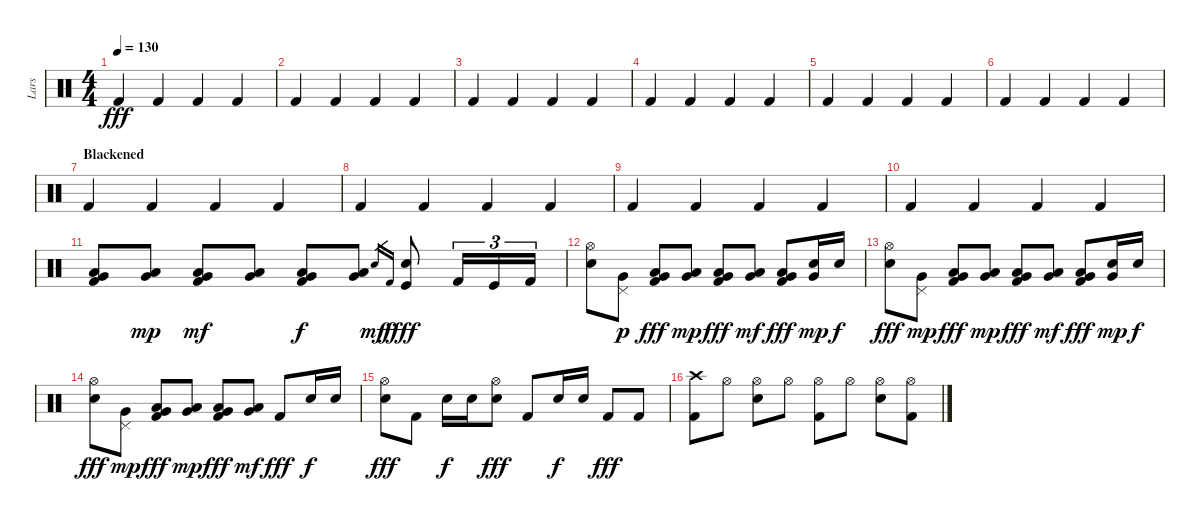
\track ("Lars" "Lars") {instrument percussion}
\staff {score}
\articulation defaults
\ts (4 4)
\tempo 130
\clef neutral
\ks c "Kick (hit) 2".4{dy fff} "Kick (hit) 2".4 "Kick (hit) 2".4 "Kick (hit) 2".4
|
"Kick (hit) 2".4 "Kick (hit) 2".4 "Kick (hit) 2".4 "Kick (hit) 2".4 |
"Kick (hit) 2".4 "Kick (hit) 2".4 "Kick (hit) 2".4 "Kick (hit) 2".4 |
"Kick (hit) 2".4 "Kick (hit) 2".4 "Kick (hit) 2".4 "Kick (hit) 2".4 |
"Kick (hit) 2".4 "Kick (hit) 2".4 "Kick (hit) 2".4 "Kick (hit) 2".4 |
"Kick (hit) 2".4 "Kick (hit) 2".4 "Kick (hit) 2".4 "Kick (hit) 2".4 |
\section ("" "Blackened")
"Kick (hit) 2".4 "Kick (hit) 2".4 "Kick (hit) 2".4 "Kick (hit) 2".4 |
"Kick (hit) 2".4 "Kick (hit) 2".4 "Kick (hit) 2".4 "Kick (hit) 2".4 |
"Kick (hit) 2".4 "Kick (hit) 2".4 "Kick (hit) 2".4 "Kick (hit) 2".4 |
"Kick (hit) 2".4 "Kick (hit) 2".4 "Kick (hit) 2".4 "Kick (hit) 2".4 |
("Very Low Tom (hit)" "Low Floor Tom (hit)" "Kick (hit) 2").8 ("Very Low Tom (hit)" "Low Floor Tom (hit)").8{dy mp} ("Very Low Tom (hit)" "Low Floor Tom (hit)" "Kick (hit) 2").8{dy mf} ("Very Low Tom (hit)" "Low Floor Tom (hit)").8 ("Very Low Tom (hit)" "Low Floor Tom (hit)" "Kick (hit) 2").8{dy f} ("Very Low Tom (hit)" "Low Floor Tom (hit)").8 "Snare (hit) 2".16{gr dy mf} "Kick (hit) 2".16{gr dy f} ("Snare (hit) 2" "Kick (hit)").8{dy fff} "Kick (hit) 2".16{tu (3 2)} "Kick (hit)".16{tu (3 2)} "Kick (hit) 2".16{tu (3 2)} |
("Hi-Hat (open)" "Snare (hit) 2").8 ("Pedal Hi-Hat (hit)" "Very Low Tom (hit)").8{dy p} ("Very Low Tom (hit)" "Low Floor Tom (hit)" "Kick (hit) 2").8{dy fff} ("Very Low Tom (hit)" "Low Floor Tom (hit)").8{dy mp} ("Very Low Tom (hit)" "Low Floor Tom (hit)" "Kick (hit) 2").8{dy fff} ("Very Low Tom (hit)" "Low Floor Tom (hit)").8{dy mf} ("Very Low Tom (hit)" "Low Floor Tom (hit)" "Kick (hit) 2").8{dy fff} ("Very Low Tom (hit)" "Snare (hit) 2").16{dy mp} "Snare (hit) 2".16{dy f} |
("Hi-Hat (open)" "Snare (hit) 2").8{dy fff} ("Pedal Hi-Hat (hit)" "Very Low Tom (hit)").8{dy mp} ("Very Low Tom (hit)" "Low Floor Tom (hit)" "Kick (hit) 2").8{dy fff} ("Very Low Tom (hit)" "Low Floor Tom (hit)").8{dy mp} ("Very Low Tom (hit)" "Low Floor Tom (hit)" "Kick (hit) 2").8{dy fff} ("Very Low Tom (hit)" "Low Floor Tom (hit)").8{dy mf} ("Very Low Tom (hit)" "Low Floor Tom (hit)" "Kick (hit) 2").8{dy fff} ("Very Low Tom (hit)" "Snare (hit) 2").16{dy mp} "Snare (hit) 2".16{dy f} |
("Hi-Hat (open)" "Snare (hit) 2").8{dy fff} ("Pedal Hi-Hat (hit)" "Very Low Tom (hit)").8{dy mp} ("Very Low Tom (hit)" "Low Floor Tom (hit)" "Kick (hit) 2").8{dy fff} ("Very Low Tom (hit)" "Low Floor Tom (hit)").8{dy mp} ("Very Low Tom (hit)" "Low Floor Tom (hit)" "Kick (hit) 2").8{dy fff} ("Very Low Tom (hit)" "Low Floor Tom (hit)").8{dy mf} "Kick (hit) 2".8{dy fff} "Snare (hit) 2".16{dy f} "Snare (hit) 2".16 |
("Hi-Hat (open)" "Snare (hit) 2").8{dy fff} "Kick (hit) 2".8 "Snare (hit) 2".16{dy f} "Snare (hit) 2".16 ("Hi-Hat (open)" "Snare (hit) 2").8{dy fff} "Kick (hit) 2".8 "Snare (hit) 2".16{dy f} "Snare (hit) 2".16 "Kick (hit) 2".8{dy fff} "Kick (hit) 2".8 |
("Crash high (hit)" "Kick (hit) 2").8 "Hi-Hat (open)".8 ("Hi-Hat (open)" "Snare (hit) 2").8 "Hi-Hat (open)".8 ("Hi-Hat (open)" "Kick (hit) 2").8 "Hi-Hat (open)".8 ("Hi-Hat (open)" "Snare (hit) 2").8 ("Hi-Hat (open)" "Kick (hit) 2").8
